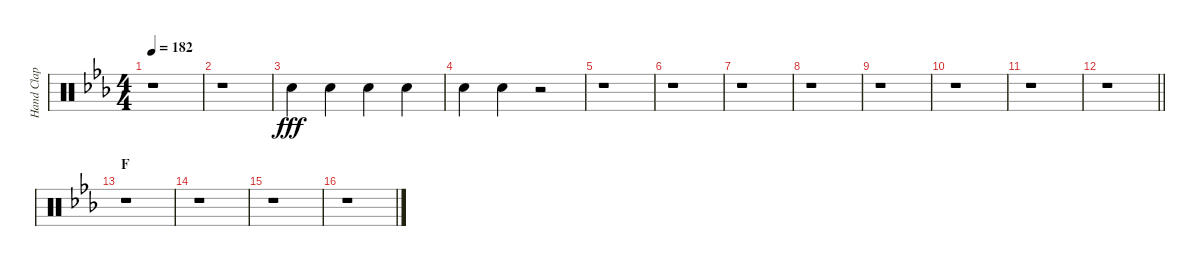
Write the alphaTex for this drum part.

\track ("Hand Clap" "Hand Clap") {instrument percussion}
\staff {score}
\articulation defaults
\ts (4 4)
\tempo 182
\clef neutral
\ks eb
r.1{dy fff} |
r.1 |
"Hand Clap (hit)".4 "Hand Clap (hit)".4 "Hand Clap (hit)".4 "Hand Clap (hit)".4 |
"Hand Clap (hit)".4 "Hand Clap (hit)".4 r.2 |
r.1 |
r.1 |
r.1 |
r.1 |
r.1 |
r.1 |
r.1 |
\barLineRight lightlight
r.1 |
\section ("" "F")
r.1 |
r.1 |
r.1 |
r.1
